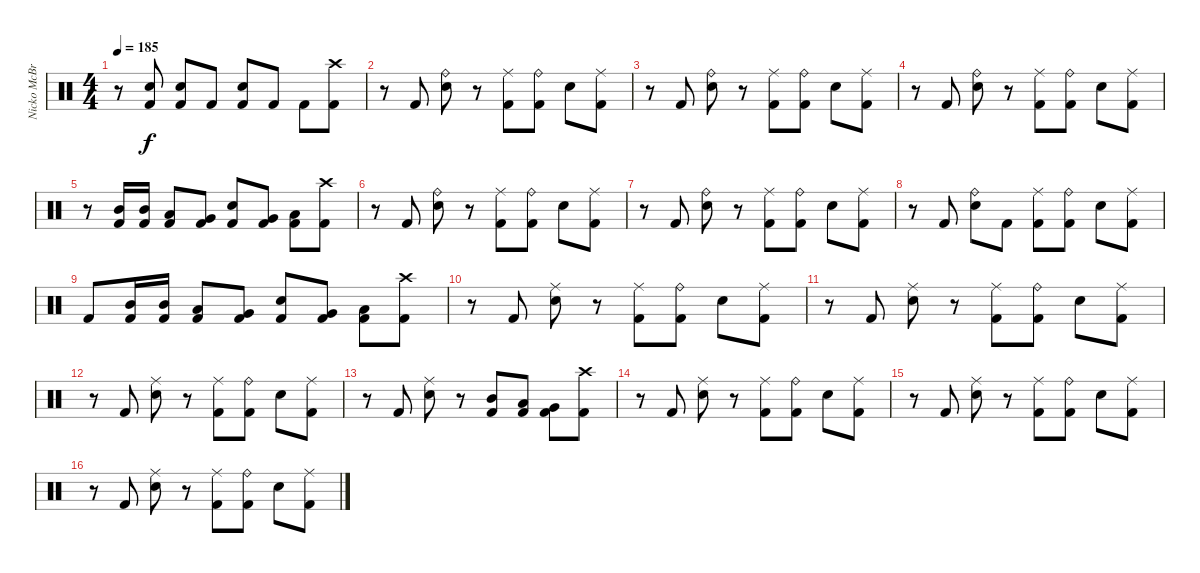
\track ("Nicko McBrain" "Nicko McBr") {instrument percussion}
\staff {score}
\articulation defaults
\ts (4 4)
\tempo 185
\clef neutral
\ks c
r.8{dy f} ("Snare (hit) 2" "Kick (hit) 2").8 ("Snare (hit) 2" "Kick (hit) 2").8 "Kick (hit) 2".8 ("Snare (hit) 2" "Kick (hit) 2").8 "Kick (hit) 2".8 "Kick (hit) 2".8 ("Crash high (hit)" "Kick (hit) 2").8 |
r.8 "Kick (hit) 2".8 ("Ride (bell)" "Snare (hit) 2").8 r.8 ("Ride (middle)" "Kick (hit) 2").8 ("Ride (bell)" "Kick (hit) 2").8 "Snare (hit) 2".8 ("Ride (middle)" "Kick (hit) 2").8 |
r.8 "Kick (hit) 2".8 ("Ride (bell)" "Snare (hit) 2").8 r.8 ("Ride (middle)" "Kick (hit) 2").8 ("Ride (bell)" "Kick (hit) 2").8 "Snare (hit) 2".8 ("Ride (middle)" "Kick (hit) 2").8 |
r.8 "Kick (hit) 2".8 ("Ride (bell)" "Snare (hit) 2").8 r.8 ("Ride (middle)" "Kick (hit) 2").8 ("Ride (bell)" "Kick (hit) 2").8 "Snare (hit) 2".8 ("Ride (middle)" "Kick (hit) 2").8 |
r.8 ("Mid Tom (hit)" "Kick (hit) 2").16 ("Mid Tom (hit)" "Kick (hit) 2").16 ("Low Tom (hit)" "Kick (hit) 2").8 ("Very Low Tom (hit)" "Kick (hit) 2").8 ("Snare (hit) 2" "Kick (hit) 2").8 ("Very Low Tom (hit)" "Kick (hit) 2").8 ("Low Floor Tom (hit)" "Kick (hit) 2").8 ("Crash high (hit)" "Kick (hit) 2").8 |
r.8 "Kick (hit) 2".8 ("Ride (bell)" "Snare (hit) 2").8 r.8 ("Ride (middle)" "Kick (hit) 2").8 ("Ride (bell)" "Kick (hit) 2").8 "Snare (hit) 2".8 ("Ride (middle)" "Kick (hit) 2").8 |
r.8 "Kick (hit) 2".8 ("Ride (bell)" "Snare (hit) 2").8 r.8 ("Ride (middle)" "Kick (hit) 2").8 ("Ride (bell)" "Kick (hit) 2").8 "Snare (hit) 2".8 ("Ride (middle)" "Kick (hit) 2").8 |
r.8 "Kick (hit) 2".8 ("Ride (bell)" "Snare (hit) 2").8 "Kick (hit) 2".8 ("Ride (middle)" "Kick (hit) 2").8 ("Ride (bell)" "Kick (hit) 2").8 "Snare (hit) 2".8 ("Ride (middle)" "Kick (hit) 2").8 |
"Kick (hit) 2".8 ("Mid Tom (hit)" "Kick (hit) 2").16 ("Mid Tom (hit)" "Kick (hit) 2").16 ("Low Tom (hit)" "Kick (hit) 2").8 ("Very Low Tom (hit)" "Kick (hit) 2").8 ("Snare (hit) 2" "Kick (hit) 2").8 ("Very Low Tom (hit)" "Kick (hit) 2").8 ("Low Floor Tom (hit)" "Kick (hit) 2").8 ("Crash high (hit)" "Kick (hit) 2").8 |
r.8 "Kick (hit) 2".8 ("Ride (middle)" "Snare (hit) 2").8 r.8 ("Ride (middle)" "Kick (hit) 2").8 ("Ride (bell)" "Kick (hit) 2").8 "Snare (hit) 2".8 ("Ride (middle)" "Kick (hit) 2").8 |
r.8 "Kick (hit) 2".8 ("Ride (middle)" "Snare (hit) 2").8 r.8 ("Ride (middle)" "Kick (hit) 2").8 ("Ride (bell)" "Kick (hit) 2").8 "Snare (hit) 2".8 ("Ride (middle)" "Kick (hit) 2").8 |
r.8 "Kick (hit) 2".8 ("Ride (middle)" "Snare (hit) 2").8 r.8 ("Ride (middle)" "Kick (hit) 2").8 ("Ride (bell)" "Kick (hit) 2").8 "Snare (hit) 2".8 ("Ride (middle)" "Kick (hit) 2").8 |
r.8 "Kick (hit) 2".8 ("Ride (middle)" "Snare (hit) 2").8 r.8 ("Mid Tom (hit)" "Kick (hit) 2").8 ("Low Tom (hit)" "Kick (hit) 2").8 ("Very Low Tom (hit)" "Kick (hit) 2").8 ("Crash high (hit)" "Kick (hit) 2").8 |
r.8 "Kick (hit) 2".8 ("Ride (middle)" "Snare (hit) 2").8 r.8 ("Ride (middle)" "Kick (hit) 2").8 ("Ride (bell)" "Kick (hit) 2").8 "Snare (hit) 2".8 ("Ride (middle)" "Kick (hit) 2").8 |
r.8 "Kick (hit) 2".8 ("Ride (middle)" "Snare (hit) 2").8 r.8 ("Ride (middle)" "Kick (hit) 2").8 ("Ride (bell)" "Kick (hit) 2").8 "Snare (hit) 2".8 ("Ride (middle)" "Kick (hit) 2").8 |
r.8 "Kick (hit) 2".8 ("Ride (middle)" "Snare (hit) 2").8 r.8 ("Ride (middle)" "Kick (hit) 2").8 ("Ride (bell)" "Kick (hit) 2").8 "Snare (hit) 2".8 ("Ride (middle)" "Kick (hit) 2").8
